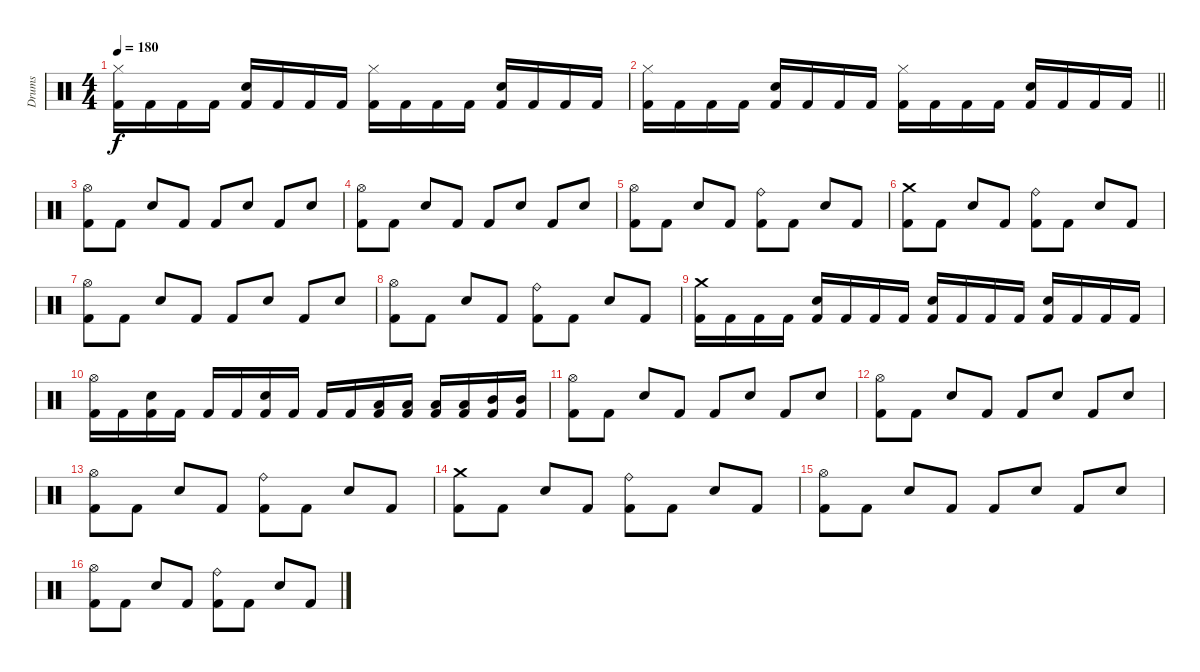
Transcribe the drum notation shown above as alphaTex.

\track ("Drums" "Drums") {instrument percussion}
\staff {score}
\articulation defaults
\ts (4 4)
\tempo 180
\clef neutral
\ks c
("Hi-Hat (closed)" "Kick (hit) 2").16{dy f} "Kick (hit) 2".16 "Kick (hit) 2".16 "Kick (hit) 2".16 ("Snare (hit) 2" "Kick (hit) 2").16 "Kick (hit) 2".16 "Kick (hit) 2".16 "Kick (hit) 2".16 ("Hi-Hat (closed)" "Kick (hit) 2").16 "Kick (hit) 2".16 "Kick (hit) 2".16 "Kick (hit) 2".16 ("Snare (hit) 2" "Kick (hit) 2").16 "Kick (hit) 2".16 "Kick (hit) 2".16 "Kick (hit) 2".16 |
\barLineRight lightlight
("Hi-Hat (closed)" "Kick (hit) 2").16 "Kick (hit) 2".16 "Kick (hit) 2".16 "Kick (hit) 2".16 ("Snare (hit) 2" "Kick (hit) 2").16 "Kick (hit) 2".16 "Kick (hit) 2".16 "Kick (hit) 2".16 ("Hi-Hat (closed)" "Kick (hit) 2").16 "Kick (hit) 2".16 "Kick (hit) 2".16 "Kick (hit) 2".16 ("Snare (hit) 2" "Kick (hit) 2").16 "Kick (hit) 2".16 "Kick (hit) 2".16 "Kick (hit) 2".16 |
("Hi-Hat (open)" "Kick (hit) 2").8 "Kick (hit) 2".8 "Snare (hit) 2".8 "Kick (hit) 2".8 "Kick (hit) 2".8 "Snare (hit) 2".8 "Kick (hit) 2".8 "Snare (hit) 2".8 |
("Hi-Hat (open)" "Kick (hit) 2").8 "Kick (hit) 2".8 "Snare (hit) 2".8 "Kick (hit) 2".8 "Kick (hit) 2".8 "Snare (hit) 2".8 "Kick (hit) 2".8 "Snare (hit) 2".8 |
("Hi-Hat (open)" "Kick (hit) 2").8 "Kick (hit) 2".8 "Snare (hit) 2".8 "Kick (hit) 2".8 ("Ride (bell)" "Kick (hit) 2").8 "Kick (hit) 2".8 "Snare (hit) 2".8 "Kick (hit) 2".8 |
("Crash medium (hit)" "Kick (hit) 2").8 "Kick (hit) 2".8 "Snare (hit) 2".8 "Kick (hit) 2".8 ("Ride (bell)" "Kick (hit) 2").8 "Kick (hit) 2".8 "Snare (hit) 2".8 "Kick (hit) 2".8 |
("Hi-Hat (open)" "Kick (hit) 2").8 "Kick (hit) 2".8 "Snare (hit) 2".8 "Kick (hit) 2".8 "Kick (hit) 2".8 "Snare (hit) 2".8 "Kick (hit) 2".8 "Snare (hit) 2".8 |
("Hi-Hat (open)" "Kick (hit) 2").8 "Kick (hit) 2".8 "Snare (hit) 2".8 "Kick (hit) 2".8 ("Ride (bell)" "Kick (hit) 2").8 "Kick (hit) 2".8 "Snare (hit) 2".8 "Kick (hit) 2".8 |
("Crash medium (hit)" "Kick (hit) 2").16 "Kick (hit) 2".16 "Kick (hit) 2".16 "Kick (hit) 2".16 ("Snare (hit) 2" "Kick (hit) 2").16 "Kick (hit) 2".16 "Kick (hit) 2".16 "Kick (hit) 2".16 ("Snare (hit) 2" "Kick (hit) 2").16 "Kick (hit) 2".16 "Kick (hit) 2".16 "Kick (hit) 2".16 ("Snare (hit) 2" "Kick (hit) 2").16 "Kick (hit) 2".16 "Kick (hit) 2".16 "Kick (hit) 2".16 |
("Hi-Hat (open)" "Kick (hit) 2").16 "Kick (hit) 2".16 ("Snare (hit) 2" "Kick (hit) 2").16 "Kick (hit) 2".16 "Kick (hit) 2".16 "Kick (hit) 2".16 ("Snare (hit) 2" "Kick (hit) 2").16 "Kick (hit) 2".16 "Kick (hit) 2".16 "Kick (hit) 2".16 ("Low Tom (hit)" "Kick (hit) 2").16 ("Low Tom (hit)" "Kick (hit) 2").16 ("Low Tom (hit)" "Kick (hit) 2").16 ("Low Tom (hit)" "Kick (hit) 2").16 ("Mid Tom (hit)" "Kick (hit) 2").16 ("Mid Tom (hit)" "Kick (hit) 2").16 |
("Hi-Hat (open)" "Kick (hit) 2").8 "Kick (hit) 2".8 "Snare (hit) 2".8 "Kick (hit) 2".8 "Kick (hit) 2".8 "Snare (hit) 2".8 "Kick (hit) 2".8 "Snare (hit) 2".8 |
("Hi-Hat (open)" "Kick (hit) 2").8 "Kick (hit) 2".8 "Snare (hit) 2".8 "Kick (hit) 2".8 "Kick (hit) 2".8 "Snare (hit) 2".8 "Kick (hit) 2".8 "Snare (hit) 2".8 |
("Hi-Hat (open)" "Kick (hit) 2").8 "Kick (hit) 2".8 "Snare (hit) 2".8 "Kick (hit) 2".8 ("Ride (bell)" "Kick (hit) 2").8 "Kick (hit) 2".8 "Snare (hit) 2".8 "Kick (hit) 2".8 |
("Crash medium (hit)" "Kick (hit) 2").8 "Kick (hit) 2".8 "Snare (hit) 2".8 "Kick (hit) 2".8 ("Ride (bell)" "Kick (hit) 2").8 "Kick (hit) 2".8 "Snare (hit) 2".8 "Kick (hit) 2".8 |
("Hi-Hat (open)" "Kick (hit) 2").8 "Kick (hit) 2".8 "Snare (hit) 2".8 "Kick (hit) 2".8 "Kick (hit) 2".8 "Snare (hit) 2".8 "Kick (hit) 2".8 "Snare (hit) 2".8 |
("Hi-Hat (open)" "Kick (hit) 2").8 "Kick (hit) 2".8 "Snare (hit) 2".8 "Kick (hit) 2".8 ("Ride (bell)" "Kick (hit) 2").8 "Kick (hit) 2".8 "Snare (hit) 2".8 "Kick (hit) 2".8
